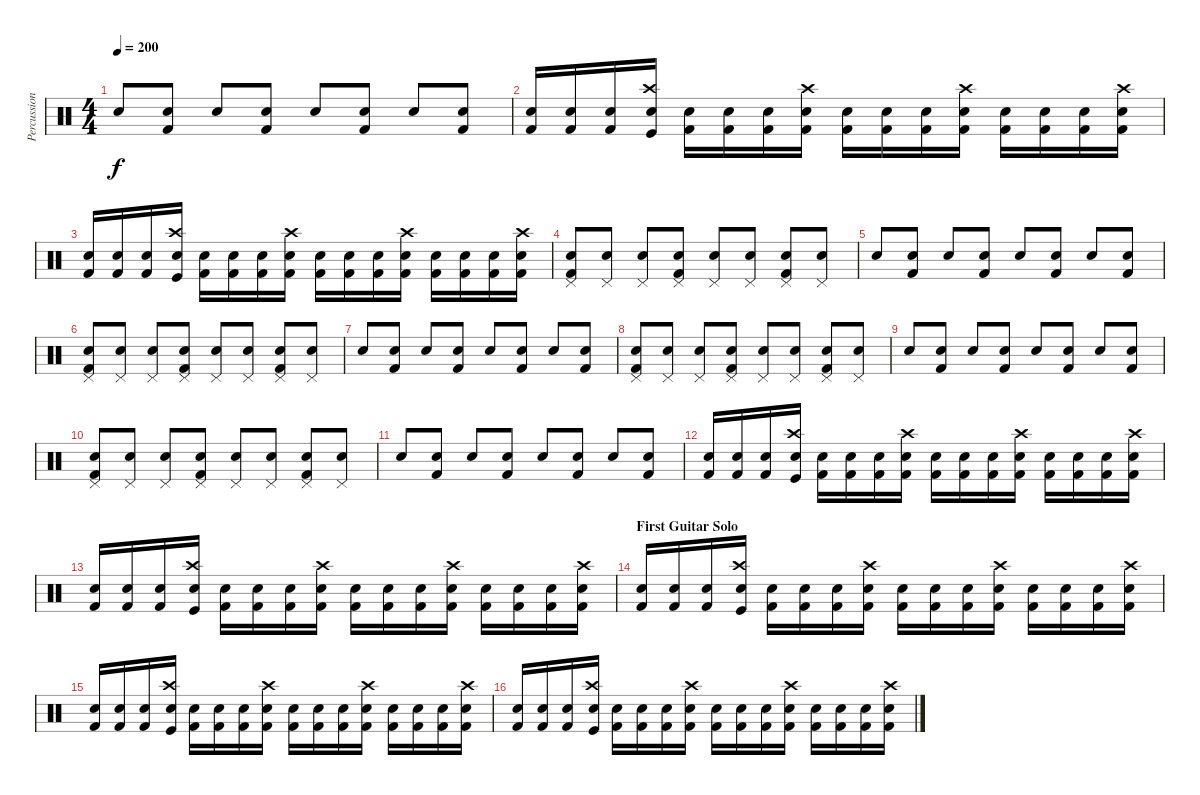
\track ("Percussion" "Percussion") {instrument percussion}
\staff {score}
\articulation defaults
\ts (4 4)
\tempo 200
\clef neutral
\ks c "Electric Snare (hit)".8{dy f}
("Kick (hit) 2" "Snare (hit) 2").8 "Electric Snare (hit)".8 ("Kick (hit) 2" "Snare (hit) 2").8 "Electric Snare (hit)".8 ("Snare (hit) 2" "Kick (hit) 2").8 "Electric Snare (hit)".8 ("Snare (hit) 2" "Kick (hit) 2").8 |
("Kick (hit) 2" "Snare (hit) 2").16 ("Snare (hit) 2" "Kick (hit) 2").16 ("Kick (hit) 2" "Snare (hit) 2").16 ("Crash high (hit)" "Kick (hit)" "Snare (hit) 2").16 ("Snare (hit) 2" "Kick (hit) 2").16 ("Kick (hit) 2" "Snare (hit) 2").16 ("Kick (hit) 2" "Snare (hit) 2").16 ("Kick (hit) 2" "Snare (hit) 2" "Crash high (hit)").16 ("Kick (hit) 2" "Snare (hit) 2").16 ("Snare (hit) 2" "Kick (hit) 2").16 ("Kick (hit) 2" "Snare (hit) 2").16 ("Kick (hit) 2" "Snare (hit) 2" "Crash high (hit)").16 ("Kick (hit) 2" "Snare (hit) 2").16 ("Snare (hit) 2" "Kick (hit) 2").16 ("Kick (hit) 2" "Snare (hit) 2").16 ("Kick (hit) 2" "Crash high (hit)" "Snare (hit) 2").16 |
("Kick (hit) 2" "Snare (hit) 2").16 ("Snare (hit) 2" "Kick (hit) 2").16 ("Kick (hit) 2" "Snare (hit) 2").16 ("Crash high (hit)" "Kick (hit)" "Snare (hit) 2").16 ("Snare (hit) 2" "Kick (hit) 2").16 ("Kick (hit) 2" "Snare (hit) 2").16 ("Kick (hit) 2" "Snare (hit) 2").16 ("Kick (hit) 2" "Snare (hit) 2" "Crash high (hit)").16 ("Kick (hit) 2" "Snare (hit) 2").16 ("Snare (hit) 2" "Kick (hit) 2").16 ("Kick (hit) 2" "Snare (hit) 2").16 ("Kick (hit) 2" "Snare (hit) 2" "Crash high (hit)").16 ("Kick (hit) 2" "Snare (hit) 2").16 ("Snare (hit) 2" "Kick (hit) 2").16 ("Kick (hit) 2" "Snare (hit) 2").16 ("Kick (hit) 2" "Crash high (hit)" "Snare (hit) 2").16 |
("Pedal Hi-Hat (hit)" "Kick (hit) 2" "Snare (hit) 2").8 ("Pedal Hi-Hat (hit)" "Electric Snare (hit)").8 ("Pedal Hi-Hat (hit)" "Electric Snare (hit)").8 ("Pedal Hi-Hat (hit)" "Snare (hit) 2" "Kick (hit) 2").8 ("Pedal Hi-Hat (hit)" "Electric Snare (hit)").8 ("Pedal Hi-Hat (hit)" "Electric Snare (hit)").8 ("Pedal Hi-Hat (hit)" "Kick (hit) 2" "Snare (hit) 2").8 ("Pedal Hi-Hat (hit)" "Electric Snare (hit)").8 |
"Electric Snare (hit)".8 ("Kick (hit) 2" "Snare (hit) 2").8 "Electric Snare (hit)".8 ("Kick (hit) 2" "Snare (hit) 2").8 "Electric Snare (hit)".8 ("Snare (hit) 2" "Kick (hit) 2").8 "Electric Snare (hit)".8 ("Snare (hit) 2" "Kick (hit) 2").8 |
("Pedal Hi-Hat (hit)" "Kick (hit) 2" "Snare (hit) 2").8 ("Pedal Hi-Hat (hit)" "Electric Snare (hit)").8 ("Pedal Hi-Hat (hit)" "Electric Snare (hit)").8 ("Pedal Hi-Hat (hit)" "Snare (hit) 2" "Kick (hit) 2").8 ("Pedal Hi-Hat (hit)" "Electric Snare (hit)").8 ("Pedal Hi-Hat (hit)" "Electric Snare (hit)").8 ("Pedal Hi-Hat (hit)" "Kick (hit) 2" "Snare (hit) 2").8 ("Pedal Hi-Hat (hit)" "Electric Snare (hit)").8 |
"Electric Snare (hit)".8 ("Kick (hit) 2" "Snare (hit) 2").8 "Electric Snare (hit)".8 ("Kick (hit) 2" "Snare (hit) 2").8 "Electric Snare (hit)".8 ("Snare (hit) 2" "Kick (hit) 2").8 "Electric Snare (hit)".8 ("Snare (hit) 2" "Kick (hit) 2").8 |
("Pedal Hi-Hat (hit)" "Kick (hit) 2" "Snare (hit) 2").8 ("Pedal Hi-Hat (hit)" "Electric Snare (hit)").8 ("Pedal Hi-Hat (hit)" "Electric Snare (hit)").8 ("Pedal Hi-Hat (hit)" "Snare (hit) 2" "Kick (hit) 2").8 ("Pedal Hi-Hat (hit)" "Electric Snare (hit)").8 ("Pedal Hi-Hat (hit)" "Electric Snare (hit)").8 ("Pedal Hi-Hat (hit)" "Kick (hit) 2" "Snare (hit) 2").8 ("Pedal Hi-Hat (hit)" "Electric Snare (hit)").8 |
"Electric Snare (hit)".8 ("Kick (hit) 2" "Snare (hit) 2").8 "Electric Snare (hit)".8 ("Kick (hit) 2" "Snare (hit) 2").8 "Electric Snare (hit)".8 ("Snare (hit) 2" "Kick (hit) 2").8 "Electric Snare (hit)".8 ("Snare (hit) 2" "Kick (hit) 2").8 |
("Pedal Hi-Hat (hit)" "Kick (hit) 2" "Snare (hit) 2").8 ("Pedal Hi-Hat (hit)" "Electric Snare (hit)").8 ("Pedal Hi-Hat (hit)" "Electric Snare (hit)").8 ("Pedal Hi-Hat (hit)" "Snare (hit) 2" "Kick (hit) 2").8 ("Pedal Hi-Hat (hit)" "Electric Snare (hit)").8 ("Pedal Hi-Hat (hit)" "Electric Snare (hit)").8 ("Pedal Hi-Hat (hit)" "Kick (hit) 2" "Snare (hit) 2").8 ("Pedal Hi-Hat (hit)" "Electric Snare (hit)").8 |
"Electric Snare (hit)".8 ("Kick (hit) 2" "Snare (hit) 2").8 "Electric Snare (hit)".8 ("Kick (hit) 2" "Snare (hit) 2").8 "Electric Snare (hit)".8 ("Snare (hit) 2" "Kick (hit) 2").8 "Electric Snare (hit)".8 ("Snare (hit) 2" "Kick (hit) 2").8 |
("Kick (hit) 2" "Snare (hit) 2").16 ("Snare (hit) 2" "Kick (hit) 2").16 ("Kick (hit) 2" "Snare (hit) 2").16 ("Crash high (hit)" "Kick (hit)" "Snare (hit) 2").16 ("Snare (hit) 2" "Kick (hit) 2").16 ("Kick (hit) 2" "Snare (hit) 2").16 ("Kick (hit) 2" "Snare (hit) 2").16 ("Kick (hit) 2" "Snare (hit) 2" "Crash high (hit)").16 ("Kick (hit) 2" "Snare (hit) 2").16 ("Snare (hit) 2" "Kick (hit) 2").16 ("Kick (hit) 2" "Snare (hit) 2").16 ("Kick (hit) 2" "Snare (hit) 2" "Crash high (hit)").16 ("Kick (hit) 2" "Snare (hit) 2").16 ("Snare (hit) 2" "Kick (hit) 2").16 ("Kick (hit) 2" "Snare (hit) 2").16 ("Kick (hit) 2" "Crash high (hit)" "Snare (hit) 2").16 |
("Kick (hit) 2" "Snare (hit) 2").16 ("Snare (hit) 2" "Kick (hit) 2").16 ("Kick (hit) 2" "Snare (hit) 2").16 ("Crash high (hit)" "Kick (hit)" "Snare (hit) 2").16 ("Snare (hit) 2" "Kick (hit) 2").16 ("Kick (hit) 2" "Snare (hit) 2").16 ("Kick (hit) 2" "Snare (hit) 2").16 ("Kick (hit) 2" "Snare (hit) 2" "Crash high (hit)").16 ("Kick (hit) 2" "Snare (hit) 2").16 ("Snare (hit) 2" "Kick (hit) 2").16 ("Kick (hit) 2" "Snare (hit) 2").16 ("Kick (hit) 2" "Snare (hit) 2" "Crash high (hit)").16 ("Kick (hit) 2" "Snare (hit) 2").16 ("Snare (hit) 2" "Kick (hit) 2").16 ("Kick (hit) 2" "Snare (hit) 2").16 ("Kick (hit) 2" "Crash high (hit)" "Snare (hit) 2").16 |
\section ("" "First Guitar Solo")
("Kick (hit) 2" "Snare (hit) 2").16 ("Snare (hit) 2" "Kick (hit) 2").16 ("Kick (hit) 2" "Snare (hit) 2").16 ("Crash high (hit)" "Kick (hit)" "Snare (hit) 2").16 ("Snare (hit) 2" "Kick (hit) 2").16 ("Kick (hit) 2" "Snare (hit) 2").16 ("Kick (hit) 2" "Snare (hit) 2").16 ("Kick (hit) 2" "Snare (hit) 2" "Crash high (hit)").16 ("Kick (hit) 2" "Snare (hit) 2").16 ("Snare (hit) 2" "Kick (hit) 2").16 ("Kick (hit) 2" "Snare (hit) 2").16 ("Kick (hit) 2" "Snare (hit) 2" "Crash high (hit)").16 ("Kick (hit) 2" "Snare (hit) 2").16 ("Snare (hit) 2" "Kick (hit) 2").16 ("Kick (hit) 2" "Snare (hit) 2").16 ("Kick (hit) 2" "Crash high (hit)" "Snare (hit) 2").16 |
("Kick (hit) 2" "Snare (hit) 2").16 ("Snare (hit) 2" "Kick (hit) 2").16 ("Kick (hit) 2" "Snare (hit) 2").16 ("Crash high (hit)" "Kick (hit)" "Snare (hit) 2").16 ("Snare (hit) 2" "Kick (hit) 2").16 ("Kick (hit) 2" "Snare (hit) 2").16 ("Kick (hit) 2" "Snare (hit) 2").16 ("Kick (hit) 2" "Snare (hit) 2" "Crash high (hit)").16 ("Kick (hit) 2" "Snare (hit) 2").16 ("Snare (hit) 2" "Kick (hit) 2").16 ("Kick (hit) 2" "Snare (hit) 2").16 ("Kick (hit) 2" "Snare (hit) 2" "Crash high (hit)").16 ("Kick (hit) 2" "Snare (hit) 2").16 ("Snare (hit) 2" "Kick (hit) 2").16 ("Kick (hit) 2" "Snare (hit) 2").16 ("Kick (hit) 2" "Crash high (hit)" "Snare (hit) 2").16 |
("Kick (hit) 2" "Snare (hit) 2").16 ("Snare (hit) 2" "Kick (hit) 2").16 ("Kick (hit) 2" "Snare (hit) 2").16 ("Crash high (hit)" "Kick (hit)" "Snare (hit) 2").16 ("Snare (hit) 2" "Kick (hit) 2").16 ("Kick (hit) 2" "Snare (hit) 2").16 ("Kick (hit) 2" "Snare (hit) 2").16 ("Kick (hit) 2" "Snare (hit) 2" "Crash high (hit)").16 ("Kick (hit) 2" "Snare (hit) 2").16 ("Snare (hit) 2" "Kick (hit) 2").16 ("Kick (hit) 2" "Snare (hit) 2").16 ("Kick (hit) 2" "Snare (hit) 2" "Crash high (hit)").16 ("Kick (hit) 2" "Snare (hit) 2").16 ("Snare (hit) 2" "Kick (hit) 2").16 ("Kick (hit) 2" "Snare (hit) 2").16 ("Kick (hit) 2" "Crash high (hit)" "Snare (hit) 2").16
